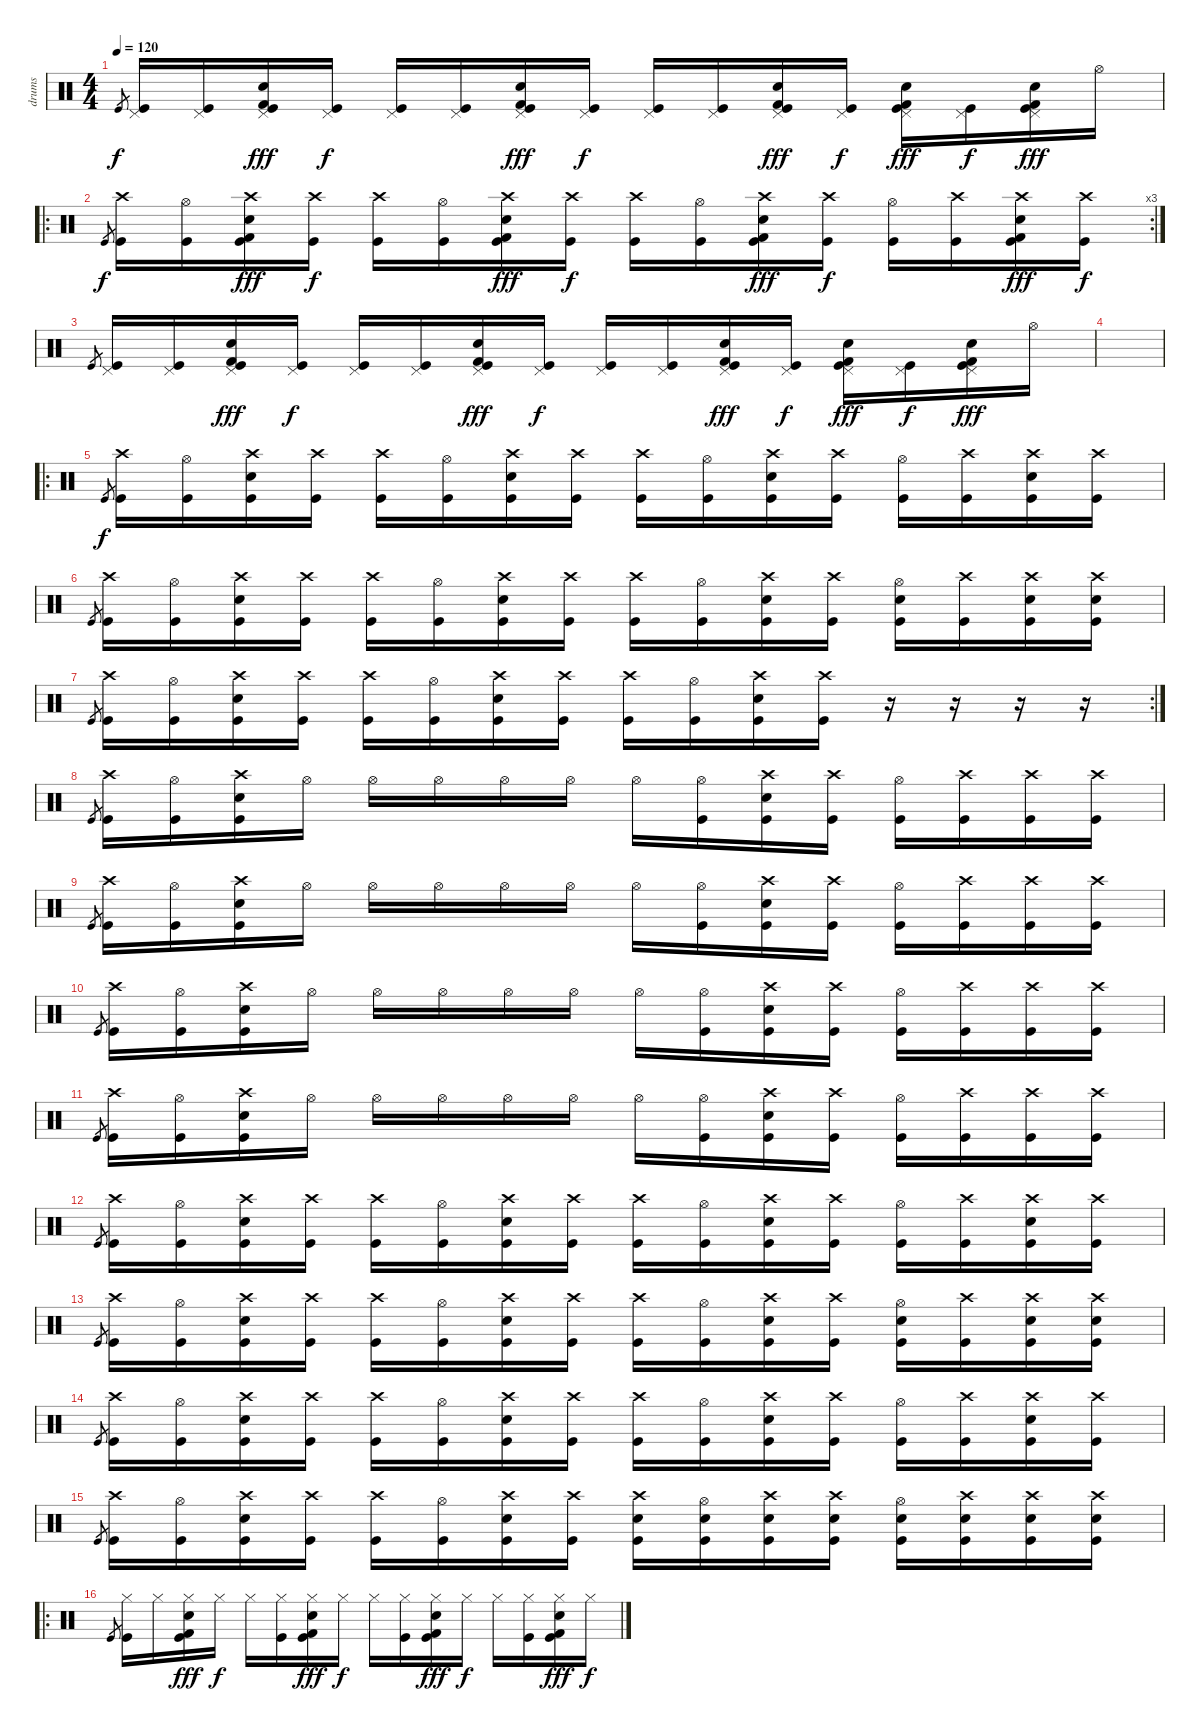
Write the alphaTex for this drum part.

\track ("drums" "drums") {instrument percussion}
\staff {score}
\articulation defaults
\ts (4 4)
\tempo 120
\clef neutral
\ks c "Kick (hit)".8{gr dy f}
("Pedal Hi-Hat (hit)" "Kick (hit)").16 ("Pedal Hi-Hat (hit)" "Kick (hit)").16 ("Pedal Hi-Hat (hit)" "Kick (hit) 2" "Electric Snare (hit)" "Kick (hit)").16{dy fff} ("Pedal Hi-Hat (hit)" "Kick (hit)").16{dy f} ("Pedal Hi-Hat (hit)" "Kick (hit)").16 ("Pedal Hi-Hat (hit)" "Kick (hit)").16 ("Pedal Hi-Hat (hit)" "Kick (hit) 2" "Electric Snare (hit)" "Kick (hit)").16{dy fff} ("Pedal Hi-Hat (hit)" "Kick (hit)").16{dy f} ("Pedal Hi-Hat (hit)" "Kick (hit)").16 ("Pedal Hi-Hat (hit)" "Kick (hit)").16 ("Pedal Hi-Hat (hit)" "Kick (hit) 2" "Electric Snare (hit)" "Kick (hit)").16{dy fff} ("Pedal Hi-Hat (hit)" "Kick (hit)").16{dy f} ("Pedal Hi-Hat (hit)" "Kick (hit) 2" "Electric Snare (hit)" "Kick (hit)").16{dy fff} ("Pedal Hi-Hat (hit)" "Kick (hit)").16{dy f} ("Pedal Hi-Hat (hit)" "Kick (hit) 2" "Electric Snare (hit)" "Kick (hit)").16{dy fff} "Hi-Hat (open)".16 |
\ro
\rc 3 "Kick (hit)".8{gr dy f}
("Crash high (hit)" "Kick (hit)").16 ("Hi-Hat (open)" "Kick (hit)").16 ("Crash high (hit)" "Kick (hit) 2" "Electric Snare (hit)" "Kick (hit)").16{dy fff} ("Crash high (hit)" "Kick (hit)").16{dy f} ("Crash high (hit)" "Kick (hit)").16 ("Hi-Hat (open)" "Kick (hit)").16 ("Crash high (hit)" "Kick (hit) 2" "Electric Snare (hit)" "Kick (hit)").16{dy fff} ("Crash high (hit)" "Kick (hit)").16{dy f} ("Crash high (hit)" "Kick (hit)").16 ("Hi-Hat (open)" "Kick (hit)").16 ("Crash high (hit)" "Kick (hit) 2" "Electric Snare (hit)" "Kick (hit)").16{dy fff} ("Crash high (hit)" "Kick (hit)").16{dy f} ("Hi-Hat (open)" "Kick (hit)").16 ("Crash high (hit)" "Kick (hit)").16 ("Crash high (hit)" "Kick (hit) 2" "Electric Snare (hit)" "Kick (hit)").16{dy fff} ("Crash high (hit)" "Kick (hit)").16{dy f} |
"Kick (hit)".8{gr} ("Pedal Hi-Hat (hit)" "Kick (hit)").16 ("Pedal Hi-Hat (hit)" "Kick (hit)").16 ("Pedal Hi-Hat (hit)" "Kick (hit) 2" "Electric Snare (hit)" "Kick (hit)").16{dy fff} ("Pedal Hi-Hat (hit)" "Kick (hit)").16{dy f} ("Pedal Hi-Hat (hit)" "Kick (hit)").16 ("Pedal Hi-Hat (hit)" "Kick (hit)").16 ("Pedal Hi-Hat (hit)" "Kick (hit) 2" "Electric Snare (hit)" "Kick (hit)").16{dy fff} ("Pedal Hi-Hat (hit)" "Kick (hit)").16{dy f} ("Pedal Hi-Hat (hit)" "Kick (hit)").16 ("Pedal Hi-Hat (hit)" "Kick (hit)").16 ("Pedal Hi-Hat (hit)" "Kick (hit) 2" "Electric Snare (hit)" "Kick (hit)").16{dy fff} ("Pedal Hi-Hat (hit)" "Kick (hit)").16{dy f} ("Pedal Hi-Hat (hit)" "Kick (hit) 2" "Electric Snare (hit)" "Kick (hit)").16{dy fff} ("Pedal Hi-Hat (hit)" "Kick (hit)").16{dy f} ("Pedal Hi-Hat (hit)" "Kick (hit) 2" "Electric Snare (hit)" "Kick (hit)").16{dy fff} "Hi-Hat (open)".16 |
|
\ro "Kick (hit)".8{gr dy f}
("Crash high (hit)" "Kick (hit)").16 ("Hi-Hat (open)" "Kick (hit)").16 ("Crash high (hit)" "Electric Snare (hit)" "Kick (hit)").16 ("Crash high (hit)" "Kick (hit)").16 ("Crash high (hit)" "Kick (hit)").16 ("Hi-Hat (open)" "Kick (hit)").16 ("Crash high (hit)" "Electric Snare (hit)" "Kick (hit)").16 ("Crash high (hit)" "Kick (hit)").16 ("Crash high (hit)" "Kick (hit)").16 ("Hi-Hat (open)" "Kick (hit)").16 ("Crash high (hit)" "Electric Snare (hit)" "Kick (hit)").16 ("Crash high (hit)" "Kick (hit)").16 ("Hi-Hat (open)" "Kick (hit)").16 ("Crash high (hit)" "Kick (hit)").16 ("Crash high (hit)" "Electric Snare (hit)" "Kick (hit)").16 ("Crash high (hit)" "Kick (hit)").16 |
"Kick (hit)".8{gr} ("Crash high (hit)" "Kick (hit)").16 ("Hi-Hat (open)" "Kick (hit)").16 ("Crash high (hit)" "Electric Snare (hit)" "Kick (hit)").16 ("Crash high (hit)" "Kick (hit)").16 ("Crash high (hit)" "Kick (hit)").16 ("Hi-Hat (open)" "Kick (hit)").16 ("Crash high (hit)" "Electric Snare (hit)" "Kick (hit)").16 ("Crash high (hit)" "Kick (hit)").16 ("Crash high (hit)" "Kick (hit)").16 ("Hi-Hat (open)" "Kick (hit)").16 ("Crash high (hit)" "Electric Snare (hit)" "Kick (hit)").16 ("Crash high (hit)" "Kick (hit)").16 ("Hi-Hat (open)" "Electric Snare (hit)" "Kick (hit)").16 ("Crash high (hit)" "Kick (hit)").16 ("Crash high (hit)" "Electric Snare (hit)" "Kick (hit)").16 ("Crash high (hit)" "Electric Snare (hit)" "Kick (hit)").16 |
\rc 2 "Kick (hit)".8{gr}
("Crash high (hit)" "Kick (hit)").16 ("Hi-Hat (open)" "Kick (hit)").16 ("Crash high (hit)" "Electric Snare (hit)" "Kick (hit)").16 ("Crash high (hit)" "Kick (hit)").16 ("Crash high (hit)" "Kick (hit)").16 ("Hi-Hat (open)" "Kick (hit)").16 ("Crash high (hit)" "Electric Snare (hit)" "Kick (hit)").16 ("Crash high (hit)" "Kick (hit)").16 ("Crash high (hit)" "Kick (hit)").16 ("Hi-Hat (open)" "Kick (hit)").16 ("Crash high (hit)" "Electric Snare (hit)" "Kick (hit)").16 ("Crash high (hit)" "Kick (hit)").16 r.16 r.16 r.16 r.16 |
"Kick (hit)".8{gr} ("Crash high (hit)" "Kick (hit)").16 ("Hi-Hat (open)" "Kick (hit)").16 ("Crash high (hit)" "Electric Snare (hit)" "Kick (hit)").16 "Hi-Hat (open)".16 "Hi-Hat (open)".16 "Hi-Hat (open)".16 "Hi-Hat (open)".16 "Hi-Hat (open)".16 "Hi-Hat (open)".16 ("Hi-Hat (open)" "Kick (hit)").16 ("Crash high (hit)" "Electric Snare (hit)" "Kick (hit)").16 ("Crash high (hit)" "Kick (hit)").16 ("Hi-Hat (open)" "Kick (hit)").16 ("Crash high (hit)" "Kick (hit)").16 ("Crash high (hit)" "Kick (hit)").16 ("Crash high (hit)" "Kick (hit)").16 |
"Kick (hit)".8{gr} ("Crash high (hit)" "Kick (hit)").16 ("Hi-Hat (open)" "Kick (hit)").16 ("Crash high (hit)" "Electric Snare (hit)" "Kick (hit)").16 "Hi-Hat (open)".16 "Hi-Hat (open)".16 "Hi-Hat (open)".16 "Hi-Hat (open)".16 "Hi-Hat (open)".16 "Hi-Hat (open)".16 ("Hi-Hat (open)" "Kick (hit)").16 ("Crash high (hit)" "Electric Snare (hit)" "Kick (hit)").16 ("Crash high (hit)" "Kick (hit)").16 ("Hi-Hat (open)" "Kick (hit)").16 ("Crash high (hit)" "Kick (hit)").16 ("Crash high (hit)" "Kick (hit)").16 ("Crash high (hit)" "Kick (hit)").16 |
"Kick (hit)".8{gr} ("Crash high (hit)" "Kick (hit)").16 ("Hi-Hat (open)" "Kick (hit)").16 ("Crash high (hit)" "Electric Snare (hit)" "Kick (hit)").16 "Hi-Hat (open)".16 "Hi-Hat (open)".16 "Hi-Hat (open)".16 "Hi-Hat (open)".16 "Hi-Hat (open)".16 "Hi-Hat (open)".16 ("Hi-Hat (open)" "Kick (hit)").16 ("Crash high (hit)" "Electric Snare (hit)" "Kick (hit)").16 ("Crash high (hit)" "Kick (hit)").16 ("Hi-Hat (open)" "Kick (hit)").16 ("Crash high (hit)" "Kick (hit)").16 ("Crash high (hit)" "Kick (hit)").16 ("Crash high (hit)" "Kick (hit)").16 |
"Kick (hit)".8{gr} ("Crash high (hit)" "Kick (hit)").16 ("Hi-Hat (open)" "Kick (hit)").16 ("Crash high (hit)" "Electric Snare (hit)" "Kick (hit)").16 "Hi-Hat (open)".16 "Hi-Hat (open)".16 "Hi-Hat (open)".16 "Hi-Hat (open)".16 "Hi-Hat (open)".16 "Hi-Hat (open)".16 ("Hi-Hat (open)" "Kick (hit)").16 ("Crash high (hit)" "Electric Snare (hit)" "Kick (hit)").16 ("Crash high (hit)" "Kick (hit)").16 ("Hi-Hat (open)" "Kick (hit)").16 ("Crash high (hit)" "Kick (hit)").16 ("Crash high (hit)" "Kick (hit)").16 ("Crash high (hit)" "Kick (hit)").16 |
"Kick (hit)".8{gr} ("Crash high (hit)" "Kick (hit)").16 ("Hi-Hat (open)" "Kick (hit)").16 ("Crash high (hit)" "Electric Snare (hit)" "Kick (hit)").16 ("Crash high (hit)" "Kick (hit)").16 ("Crash high (hit)" "Kick (hit)").16 ("Hi-Hat (open)" "Kick (hit)").16 ("Crash high (hit)" "Electric Snare (hit)" "Kick (hit)").16 ("Crash high (hit)" "Kick (hit)").16 ("Crash high (hit)" "Kick (hit)").16 ("Hi-Hat (open)" "Kick (hit)").16 ("Crash high (hit)" "Electric Snare (hit)" "Kick (hit)").16 ("Crash high (hit)" "Kick (hit)").16 ("Hi-Hat (open)" "Kick (hit)").16 ("Crash high (hit)" "Kick (hit)").16 ("Crash high (hit)" "Electric Snare (hit)" "Kick (hit)").16 ("Crash high (hit)" "Kick (hit)").16 |
"Kick (hit)".8{gr} ("Crash high (hit)" "Kick (hit)").16 ("Hi-Hat (open)" "Kick (hit)").16 ("Crash high (hit)" "Electric Snare (hit)" "Kick (hit)").16 ("Crash high (hit)" "Kick (hit)").16 ("Crash high (hit)" "Kick (hit)").16 ("Hi-Hat (open)" "Kick (hit)").16 ("Crash high (hit)" "Electric Snare (hit)" "Kick (hit)").16 ("Crash high (hit)" "Kick (hit)").16 ("Crash high (hit)" "Kick (hit)").16 ("Hi-Hat (open)" "Kick (hit)").16 ("Crash high (hit)" "Electric Snare (hit)" "Kick (hit)").16 ("Crash high (hit)" "Kick (hit)").16 ("Hi-Hat (open)" "Electric Snare (hit)" "Kick (hit)").16 ("Crash high (hit)" "Kick (hit)").16 ("Crash high (hit)" "Electric Snare (hit)" "Kick (hit)").16 ("Crash high (hit)" "Electric Snare (hit)" "Kick (hit)").16 |
"Kick (hit)".8{gr} ("Crash high (hit)" "Kick (hit)").16 ("Hi-Hat (open)" "Kick (hit)").16 ("Crash high (hit)" "Electric Snare (hit)" "Kick (hit)").16 ("Crash high (hit)" "Kick (hit)").16 ("Crash high (hit)" "Kick (hit)").16 ("Hi-Hat (open)" "Kick (hit)").16 ("Crash high (hit)" "Electric Snare (hit)" "Kick (hit)").16 ("Crash high (hit)" "Kick (hit)").16 ("Crash high (hit)" "Kick (hit)").16 ("Hi-Hat (open)" "Kick (hit)").16 ("Crash high (hit)" "Electric Snare (hit)" "Kick (hit)").16 ("Crash high (hit)" "Kick (hit)").16 ("Hi-Hat (open)" "Kick (hit)").16 ("Crash high (hit)" "Kick (hit)").16 ("Crash high (hit)" "Electric Snare (hit)" "Kick (hit)").16 ("Crash high (hit)" "Kick (hit)").16 |
"Kick (hit)".8{gr} ("Crash high (hit)" "Kick (hit)").16 ("Hi-Hat (open)" "Kick (hit)").16 ("Crash high (hit)" "Electric Snare (hit)" "Kick (hit)").16 ("Crash high (hit)" "Kick (hit)").16 ("Crash high (hit)" "Kick (hit)").16 ("Hi-Hat (open)" "Kick (hit)").16 ("Crash high (hit)" "Electric Snare (hit)" "Kick (hit)").16 ("Crash high (hit)" "Kick (hit)").16 ("Crash high (hit)" "Electric Snare (hit)" "Kick (hit)").16 ("Hi-Hat (open)" "Electric Snare (hit)" "Kick (hit)").16 ("Crash high (hit)" "Electric Snare (hit)" "Kick (hit)").16 ("Crash high (hit)" "Electric Snare (hit)" "Kick (hit)").16 ("Hi-Hat (open)" "Electric Snare (hit)" "Kick (hit)").16 ("Crash high (hit)" "Electric Snare (hit)" "Kick (hit)").16 ("Crash high (hit)" "Electric Snare (hit)" "Kick (hit)").16 ("Crash high (hit)" "Electric Snare (hit)" "Kick (hit)").16 |
\ro "Kick (hit)".8{gr}
("Hi-Hat (closed)" "Kick (hit)").16 "Hi-Hat (closed)".16 ("Hi-Hat (closed)" "Kick (hit) 2" "Electric Snare (hit)" "Kick (hit)").16{dy fff} "Hi-Hat (closed)".16{dy f} "Hi-Hat (closed)".16 ("Hi-Hat (closed)" "Kick (hit)").16 ("Hi-Hat (closed)" "Kick (hit) 2" "Electric Snare (hit)" "Kick (hit)").16{dy fff} "Hi-Hat (closed)".16{dy f} "Hi-Hat (closed)".16 ("Hi-Hat (closed)" "Kick (hit)").16 ("Hi-Hat (closed)" "Kick (hit) 2" "Electric Snare (hit)" "Kick (hit)").16{dy fff} "Hi-Hat (closed)".16{dy f} "Hi-Hat (closed)".16 ("Hi-Hat (closed)" "Kick (hit)").16 ("Hi-Hat (closed)" "Kick (hit) 2" "Electric Snare (hit)" "Kick (hit)").16{dy fff} "Hi-Hat (closed)".16{dy f}
